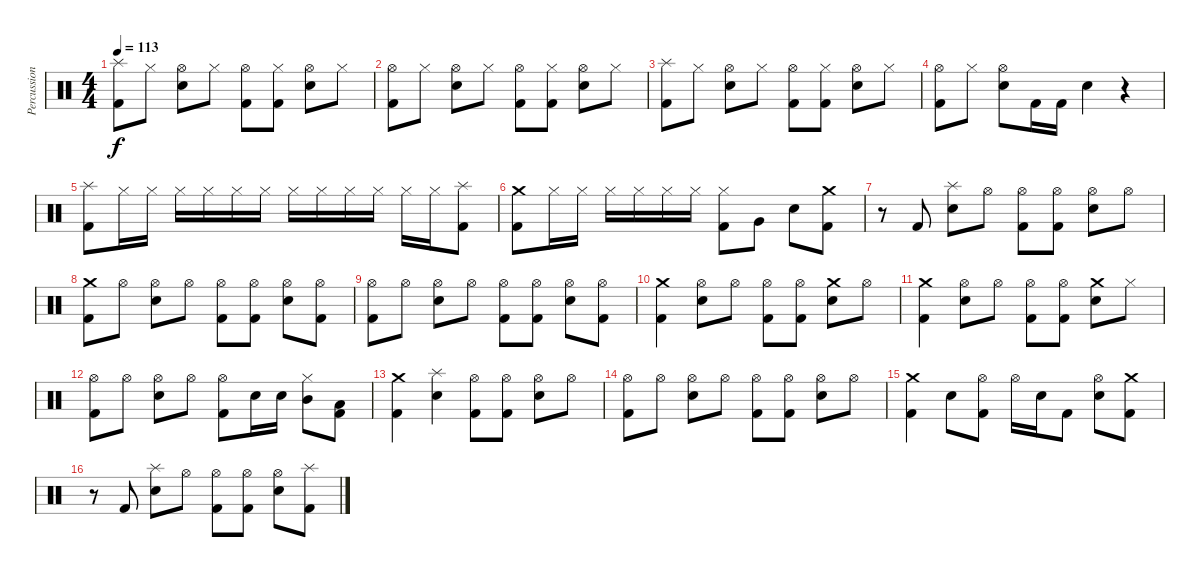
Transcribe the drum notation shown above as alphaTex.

\track ("Percussion" "Percussion") {instrument percussion}
\staff {score}
\articulation defaults
\ts (4 4)
\tempo 113
\clef neutral
\ks c
("Splash (hit)" "Kick (hit) 2").8{dy f} "Hi-Hat (closed)".8 ("Hi-Hat (open)" "Snare (hit) 2").8 "Hi-Hat (closed)".8 ("Hi-Hat (open)" "Kick (hit) 2").8 ("Hi-Hat (closed)" "Kick (hit) 2").8 ("Hi-Hat (open)" "Snare (hit) 2").8 "Hi-Hat (closed)".8 |
("Hi-Hat (open)" "Kick (hit) 2").8 "Hi-Hat (closed)".8 ("Hi-Hat (open)" "Snare (hit) 2").8 "Hi-Hat (closed)".8 ("Hi-Hat (open)" "Kick (hit) 2").8 ("Hi-Hat (closed)" "Kick (hit) 2").8 ("Hi-Hat (open)" "Snare (hit) 2").8 "Hi-Hat (closed)".8 |
("Splash (hit)" "Kick (hit) 2").8 "Hi-Hat (closed)".8 ("Hi-Hat (open)" "Snare (hit) 2").8 "Hi-Hat (closed)".8 ("Hi-Hat (open)" "Kick (hit) 2").8 ("Hi-Hat (closed)" "Kick (hit) 2").8 ("Hi-Hat (open)" "Snare (hit) 2").8 "Hi-Hat (closed)".8 |
("Hi-Hat (open)" "Kick (hit) 2").8 "Hi-Hat (closed)".8 ("Hi-Hat (open)" "Snare (hit) 2").8 "Kick (hit) 2".16 "Kick (hit) 2".16 "Snare (hit) 2".4 r.4 |
("Splash (hit)" "Kick (hit) 2").8 "Hi-Hat (closed)".16 "Hi-Hat (closed)".16 "Hi-Hat (closed)".16 "Hi-Hat (closed)".16 "Hi-Hat (closed)".16 "Hi-Hat (closed)".16 "Hi-Hat (closed)".16 "Hi-Hat (closed)".16 "Hi-Hat (closed)".16 "Hi-Hat (closed)".16 "Hi-Hat (closed)".16 "Hi-Hat (closed)".16 ("Splash (hit)" "Kick (hit) 2").8 |
("Crash medium (hit)" "Kick (hit) 2").8 "Hi-Hat (closed)".16 "Hi-Hat (closed)".16 "Hi-Hat (closed)".16 "Hi-Hat (closed)".16 "Hi-Hat (closed)".16 "Hi-Hat (closed)".16 ("Hi-Hat (closed)" "Kick (hit) 2").8 "Very Low Tom (hit)".8 "Snare (hit) 2".8 ("Crash medium (hit)" "Kick (hit) 2").8 |
r.8 "Kick (hit) 2".8 ("Splash (hit)" "Snare (hit) 2").8 "Hi-Hat (open)".8 ("Hi-Hat (open)" "Kick (hit) 2").8 ("Hi-Hat (open)" "Kick (hit) 2").8 ("Hi-Hat (open)" "Snare (hit) 2").8 "Hi-Hat (open)".8 |
("Crash medium (hit)" "Kick (hit) 2").8 "Hi-Hat (open)".8 ("Hi-Hat (open)" "Snare (hit) 2").8 "Hi-Hat (open)".8 ("Hi-Hat (open)" "Kick (hit) 2").8 ("Hi-Hat (open)" "Kick (hit) 2").8 ("Hi-Hat (open)" "Snare (hit) 2").8 ("Hi-Hat (open)" "Kick (hit) 2").8 |
("Hi-Hat (open)" "Kick (hit) 2").8 "Hi-Hat (open)".8 ("Hi-Hat (open)" "Snare (hit) 2").8 "Hi-Hat (open)".8 ("Hi-Hat (open)" "Kick (hit) 2").8 ("Hi-Hat (open)" "Kick (hit) 2").8 ("Hi-Hat (open)" "Snare (hit) 2").8 ("Hi-Hat (open)" "Kick (hit) 2").8 |
("Crash medium (hit)" "Kick (hit) 2").4 ("Hi-Hat (open)" "Snare (hit) 2").8 "Hi-Hat (open)".8 ("Hi-Hat (open)" "Kick (hit) 2").8 ("Hi-Hat (open)" "Kick (hit) 2").8 ("Crash medium (hit)" "Snare (hit) 2").8 "Hi-Hat (open)".8 |
("Crash medium (hit)" "Kick (hit) 2").4 ("Hi-Hat (open)" "Snare (hit) 2").8 "Hi-Hat (open)".8 ("Hi-Hat (open)" "Kick (hit) 2").8 ("Hi-Hat (open)" "Kick (hit) 2").8 ("Crash medium (hit)" "Snare (hit) 2").8 "Hi-Hat (closed)".8 |
("Hi-Hat (open)" "Kick (hit) 2").8 "Hi-Hat (open)".8 ("Hi-Hat (open)" "Snare (hit) 2").8 "Hi-Hat (open)".8 ("Hi-Hat (open)" "Kick (hit) 2").8 "Snare (hit) 2".16 "Snare (hit) 2".16 ("Hi-Hat (closed)" "Mid Tom (hit)").8 ("Low Tom (hit)" "Kick (hit) 2").8 |
("Crash medium (hit)" "Kick (hit) 2").4 ("Splash (hit)" "Snare (hit) 2").4 ("Hi-Hat (open)" "Kick (hit) 2").8 ("Hi-Hat (open)" "Kick (hit) 2").8 ("Hi-Hat (open)" "Snare (hit) 2").8 "Hi-Hat (open)".8 |
("Hi-Hat (open)" "Kick (hit) 2").8 "Hi-Hat (open)".8 ("Hi-Hat (open)" "Snare (hit) 2").8 "Hi-Hat (open)".8 ("Hi-Hat (open)" "Kick (hit) 2").8 ("Hi-Hat (open)" "Kick (hit) 2").8 ("Hi-Hat (open)" "Snare (hit) 2").8 "Hi-Hat (open)".8 |
("Crash medium (hit)" "Kick (hit) 2").4 "Snare (hit) 2".8 ("Hi-Hat (open)" "Kick (hit) 2").8 "Hi-Hat (open)".16 "Snare (hit) 2".16 "Kick (hit) 2".8 ("Hi-Hat (open)" "Snare (hit) 2").8 ("Crash medium (hit)" "Kick (hit) 2").8 |
r.8 "Kick (hit) 2".8 ("Splash (hit)" "Snare (hit) 2").8 "Hi-Hat (open)".8 ("Hi-Hat (open)" "Kick (hit) 2").8 ("Hi-Hat (open)" "Kick (hit) 2").8 ("Hi-Hat (open)" "Snare (hit) 2").8 ("Splash (hit)" "Kick (hit) 2").8
